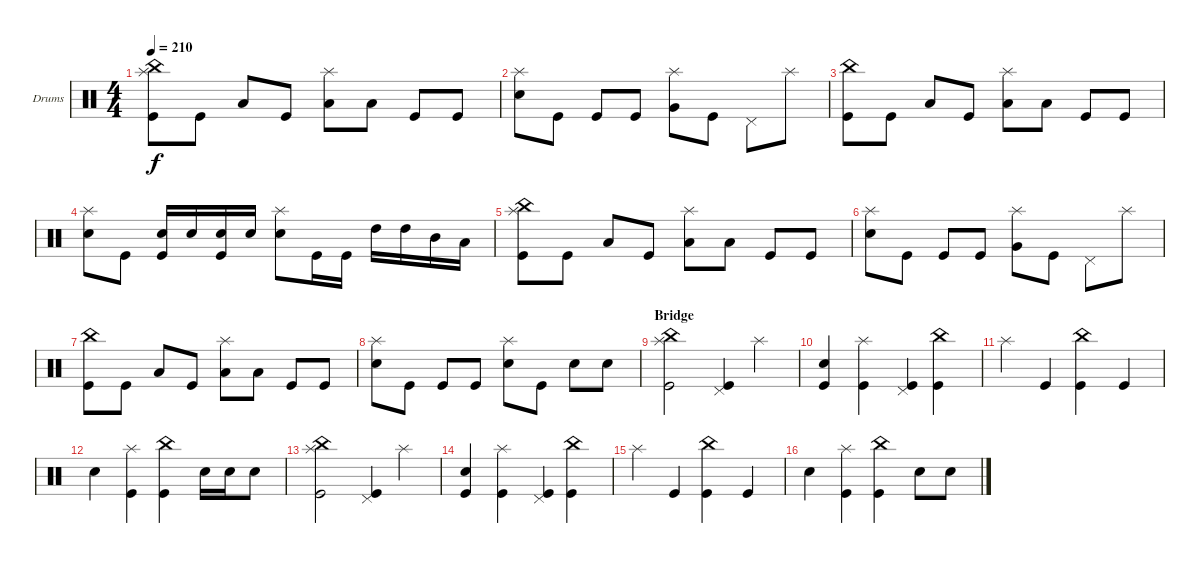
\defaultSystemsLayout 4
\bracketExtendMode groupsimilarinstruments
\firstSystemTrackNameOrientation horizontal
\otherSystemsTrackNameOrientation horizontal
\track ("Drumkit" "Drums") {instrument percussion}
\staff {score}
\articulation defaults
\ts (4 4)
\tempo 210
\clef neutral
\ks c
("Kick (hit)" "Splash (hit)" "China (hit)").8{dy f} "Kick (hit)".8 "Low Tom (hit)".8 "Kick (hit)".8 ("Splash (hit)" "Low Tom (hit)").8 "Low Tom (hit)".8 "Kick (hit)".8 "Kick (hit)".8 |
("Snare (hit) 2" "Splash (hit)").8 "Kick (hit)".8 "Kick (hit)".8 "Kick (hit)".8 ("Splash (hit)" "Very Low Tom (hit)").8 "Kick (hit)".8 "Pedal Hi-Hat (hit)".8 "Splash (hit)".8 |
("China (hit)" "Kick (hit)").8 "Kick (hit)".8 "Low Tom (hit)".8 "Kick (hit)".8 ("Splash (hit)" "Low Tom (hit)").8 "Low Tom (hit)".8 "Kick (hit)".8 "Kick (hit)".8 |
("Splash (hit)" "Snare (hit) 2").8 "Kick (hit)".8 ("Kick (hit)" "Snare (hit) 2").16 "Snare (hit) 2".16 ("Snare (hit) 2" "Kick (hit)").16 "Snare (hit) 2".16 ("Splash (hit)" "Snare (hit) 2").8 "Kick (hit)".16 "Kick (hit)".16 "High Tom (hit)".16 "High Tom (hit)".16 "Mid Tom (hit)".16 "Low Tom (hit)".16 |
("Kick (hit)" "Splash (hit)" "China (hit)").8 "Kick (hit)".8 "Low Tom (hit)".8 "Kick (hit)".8 ("Splash (hit)" "Low Tom (hit)").8 "Low Tom (hit)".8 "Kick (hit)".8 "Kick (hit)".8 |
("Snare (hit) 2" "Splash (hit)").8 "Kick (hit)".8 "Kick (hit)".8 "Kick (hit)".8 ("Splash (hit)" "Very Low Tom (hit)").8 "Kick (hit)".8 "Pedal Hi-Hat (hit)".8 "Splash (hit)".8 |
("China (hit)" "Kick (hit)").8 "Kick (hit)".8 "Low Tom (hit)".8 "Kick (hit)".8 ("Splash (hit)" "Low Tom (hit)").8 "Low Tom (hit)".8 "Kick (hit)".8 "Kick (hit)".8 |
("Splash (hit)" "Snare (hit) 2").8 "Kick (hit)".8 "Kick (hit)".8 "Kick (hit)".8 ("Snare (hit) 2" "Splash (hit)").8 "Kick (hit)".8 "Snare (hit) 2".8 "Snare (hit) 2".8 |
\section ("" "Bridge")
("Splash (hit)" "China (hit)" "Kick (hit)").2 ("Kick (hit)" "Pedal Hi-Hat (hit)").4 "Splash (hit)".4 |
("Kick (hit)" "Snare (hit) 2").4 ("Kick (hit)" "Splash (hit)").4 ("Kick (hit)" "Pedal Hi-Hat (hit)").4 ("Kick (hit)" "China (hit)").4 |
"Splash (hit)".4 "Kick (hit)".4 ("Kick (hit)" "China (hit)").4 "Kick (hit)".4 |
"Snare (hit) 2".4 ("Kick (hit)" "Splash (hit)").4 ("Kick (hit)" "China (hit)").4 "Snare (hit) 2".16 "Snare (hit) 2".16 "Snare (hit) 2".8 |
("Splash (hit)" "China (hit)" "Kick (hit)").2 ("Kick (hit)" "Pedal Hi-Hat (hit)").4 "Splash (hit)".4 |
("Kick (hit)" "Snare (hit) 2").4 ("Kick (hit)" "Splash (hit)").4 ("Kick (hit)" "Pedal Hi-Hat (hit)").4 ("Kick (hit)" "China (hit)").4 |
"Splash (hit)".4 "Kick (hit)".4 ("Kick (hit)" "China (hit)").4 "Kick (hit)".4 |
"Snare (hit) 2".4 ("Kick (hit)" "Splash (hit)").4 ("Kick (hit)" "China (hit)").4 "Snare (hit) 2".8 "Snare (hit) 2".8
